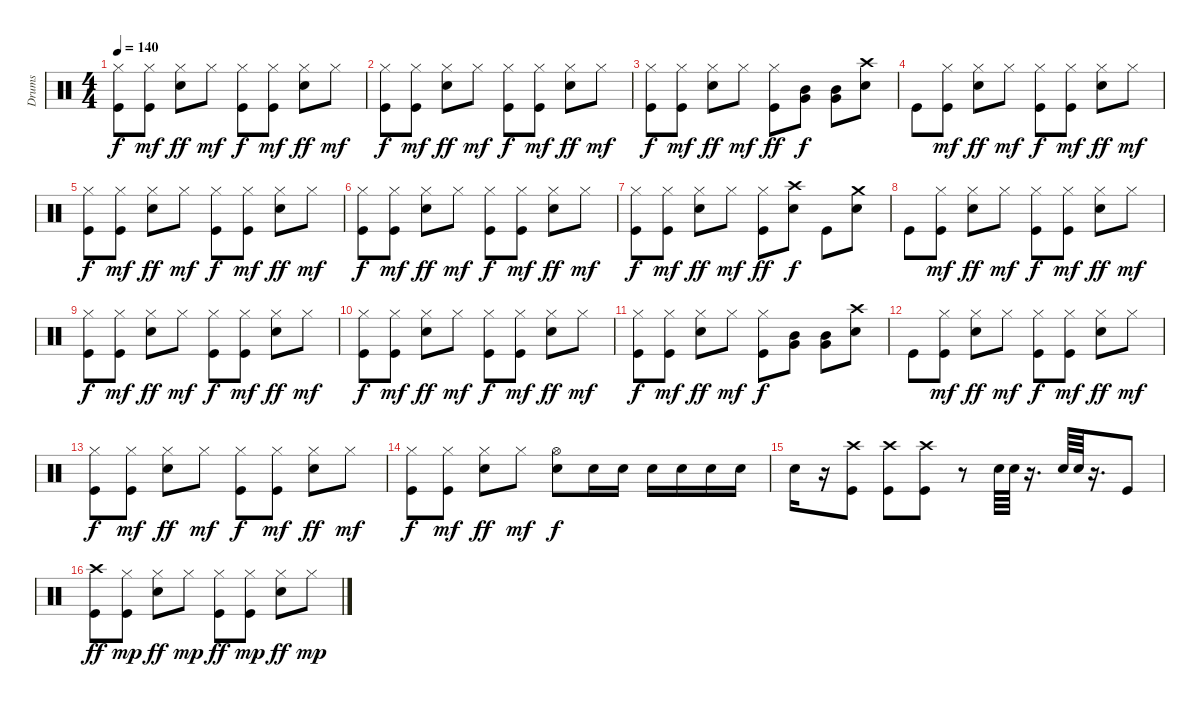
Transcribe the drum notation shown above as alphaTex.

\track ("Drums" "Drums") {instrument percussion}
\staff {score}
\articulation defaults
\ts (4 4)
\tempo 140
\clef neutral
\ks c
("Hi-Hat (closed)" "Kick (hit)").8{dy f} ("Hi-Hat (closed)" "Kick (hit)").8{dy mf} ("Hi-Hat (closed)" "Snare (hit) 2").8{dy ff} "Hi-Hat (closed)".8{dy mf} ("Hi-Hat (closed)" "Kick (hit)").8{dy f} ("Hi-Hat (closed)" "Kick (hit)").8{dy mf} ("Hi-Hat (closed)" "Snare (hit) 2").8{dy ff} "Hi-Hat (closed)".8{dy mf} |
("Hi-Hat (closed)" "Kick (hit)").8{dy f} ("Hi-Hat (closed)" "Kick (hit)").8{dy mf} ("Hi-Hat (closed)" "Snare (hit) 2").8{dy ff} "Hi-Hat (closed)".8{dy mf} ("Hi-Hat (closed)" "Kick (hit)").8{dy f} ("Hi-Hat (closed)" "Kick (hit)").8{dy mf} ("Hi-Hat (closed)" "Snare (hit) 2").8{dy ff} "Hi-Hat (closed)".8{dy mf} |
("Hi-Hat (closed)" "Kick (hit)").8{dy f} ("Hi-Hat (closed)" "Kick (hit)").8{dy mf} ("Hi-Hat (closed)" "Snare (hit) 2").8{dy ff} "Hi-Hat (closed)".8{dy mf} ("Hi-Hat (closed)" "Kick (hit)").8{dy ff} ("Very Low Tom (hit)" "Mid Tom (hit)").8{dy f} ("Very Low Tom (hit)" "Mid Tom (hit)").8 ("Crash high (hit)" "Snare (hit) 2").8 |
"Kick (hit)".8 ("Hi-Hat (closed)" "Kick (hit)").8{dy mf} ("Hi-Hat (closed)" "Snare (hit) 2").8{dy ff} "Hi-Hat (closed)".8{dy mf} ("Hi-Hat (closed)" "Kick (hit)").8{dy f} ("Hi-Hat (closed)" "Kick (hit)").8{dy mf} ("Hi-Hat (closed)" "Snare (hit) 2").8{dy ff} "Hi-Hat (closed)".8{dy mf} |
("Hi-Hat (closed)" "Kick (hit)").8{dy f} ("Hi-Hat (closed)" "Kick (hit)").8{dy mf} ("Hi-Hat (closed)" "Snare (hit) 2").8{dy ff} "Hi-Hat (closed)".8{dy mf} ("Hi-Hat (closed)" "Kick (hit)").8{dy f} ("Hi-Hat (closed)" "Kick (hit)").8{dy mf} ("Hi-Hat (closed)" "Snare (hit) 2").8{dy ff} "Hi-Hat (closed)".8{dy mf} |
("Hi-Hat (closed)" "Kick (hit)").8{dy f} ("Hi-Hat (closed)" "Kick (hit)").8{dy mf} ("Hi-Hat (closed)" "Snare (hit) 2").8{dy ff} "Hi-Hat (closed)".8{dy mf} ("Hi-Hat (closed)" "Kick (hit)").8{dy f} ("Hi-Hat (closed)" "Kick (hit)").8{dy mf} ("Hi-Hat (closed)" "Snare (hit) 2").8{dy ff} "Hi-Hat (closed)".8{dy mf} |
("Hi-Hat (closed)" "Kick (hit)").8{dy f} ("Hi-Hat (closed)" "Kick (hit)").8{dy mf} ("Hi-Hat (closed)" "Snare (hit) 2").8{dy ff} "Hi-Hat (closed)".8{dy mf} ("Hi-Hat (closed)" "Kick (hit)").8{dy ff} ("Crash high (hit)" "Snare (hit) 2").8{dy f} "Kick (hit)".8 ("Crash medium (hit)" "Snare (hit) 2").8 |
"Kick (hit)".8 ("Hi-Hat (closed)" "Kick (hit)").8{dy mf} ("Hi-Hat (closed)" "Snare (hit) 2").8{dy ff} "Hi-Hat (closed)".8{dy mf} ("Hi-Hat (closed)" "Kick (hit)").8{dy f} ("Hi-Hat (closed)" "Kick (hit)").8{dy mf} ("Hi-Hat (closed)" "Snare (hit) 2").8{dy ff} "Hi-Hat (closed)".8{dy mf} |
("Hi-Hat (closed)" "Kick (hit)").8{dy f} ("Hi-Hat (closed)" "Kick (hit)").8{dy mf} ("Hi-Hat (closed)" "Snare (hit) 2").8{dy ff} "Hi-Hat (closed)".8{dy mf} ("Hi-Hat (closed)" "Kick (hit)").8{dy f} ("Hi-Hat (closed)" "Kick (hit)").8{dy mf} ("Hi-Hat (closed)" "Snare (hit) 2").8{dy ff} "Hi-Hat (closed)".8{dy mf} |
("Hi-Hat (closed)" "Kick (hit)").8{dy f} ("Hi-Hat (closed)" "Kick (hit)").8{dy mf} ("Hi-Hat (closed)" "Snare (hit) 2").8{dy ff} "Hi-Hat (closed)".8{dy mf} ("Hi-Hat (closed)" "Kick (hit)").8{dy f} ("Hi-Hat (closed)" "Kick (hit)").8{dy mf} ("Hi-Hat (closed)" "Snare (hit) 2").8{dy ff} "Hi-Hat (closed)".8{dy mf} |
("Hi-Hat (closed)" "Kick (hit)").8{dy f} ("Hi-Hat (closed)" "Kick (hit)").8{dy mf} ("Hi-Hat (closed)" "Snare (hit) 2").8{dy ff} "Hi-Hat (closed)".8{dy mf} ("Hi-Hat (closed)" "Kick (hit)").8{dy f} ("Very Low Tom (hit)" "Mid Tom (hit)").8 ("Very Low Tom (hit)" "Mid Tom (hit)").8 ("Crash high (hit)" "Snare (hit) 2").8 |
"Kick (hit)".8 ("Hi-Hat (closed)" "Kick (hit)").8{dy mf} ("Hi-Hat (closed)" "Snare (hit) 2").8{dy ff} "Hi-Hat (closed)".8{dy mf} ("Hi-Hat (closed)" "Kick (hit)").8{dy f} ("Hi-Hat (closed)" "Kick (hit)").8{dy mf} ("Hi-Hat (closed)" "Snare (hit) 2").8{dy ff} "Hi-Hat (closed)".8{dy mf} |
("Hi-Hat (closed)" "Kick (hit)").8{dy f} ("Hi-Hat (closed)" "Kick (hit)").8{dy mf} ("Hi-Hat (closed)" "Snare (hit) 2").8{dy ff} "Hi-Hat (closed)".8{dy mf} ("Hi-Hat (closed)" "Kick (hit)").8{dy f} ("Hi-Hat (closed)" "Kick (hit)").8{dy mf} ("Hi-Hat (closed)" "Snare (hit) 2").8{dy ff} "Hi-Hat (closed)".8{dy mf} |
("Hi-Hat (closed)" "Kick (hit)").8{dy f} ("Hi-Hat (closed)" "Kick (hit)").8{dy mf} ("Hi-Hat (closed)" "Snare (hit) 2").8{dy ff} "Hi-Hat (closed)".8{dy mf} ("Hi-Hat (open)" "Snare (hit) 2").8{dy f} "Snare (hit) 2".16 "Snare (hit) 2".16 "Snare (hit) 2".16 "Snare (hit) 2".16 "Snare (hit) 2".16 "Snare (hit) 2".16 |
"Snare (hit) 2".16 r.16 ("Crash high (hit)" "Kick (hit)").8 ("Crash high (hit)" "Kick (hit)").8 ("Crash high (hit)" "Kick (hit)").8 r.8 "Snare (hit) 2".64 "Snare (hit) 2".64 r.16{d} "Snare (hit) 2".64 "Snare (hit) 2".64 r.16{d} "Kick (hit)".8 |
("Crash high (hit)" "Kick (hit)").8{dy ff} ("Hi-Hat (closed)" "Kick (hit)").8{dy mp} ("Hi-Hat (closed)" "Snare (hit) 2").8{dy ff} "Hi-Hat (closed)".8{dy mp} ("Hi-Hat (closed)" "Kick (hit)").8{dy ff} ("Hi-Hat (closed)" "Kick (hit)").8{dy mp} ("Hi-Hat (closed)" "Snare (hit) 2").8{dy ff} "Hi-Hat (closed)".8{dy mp}
